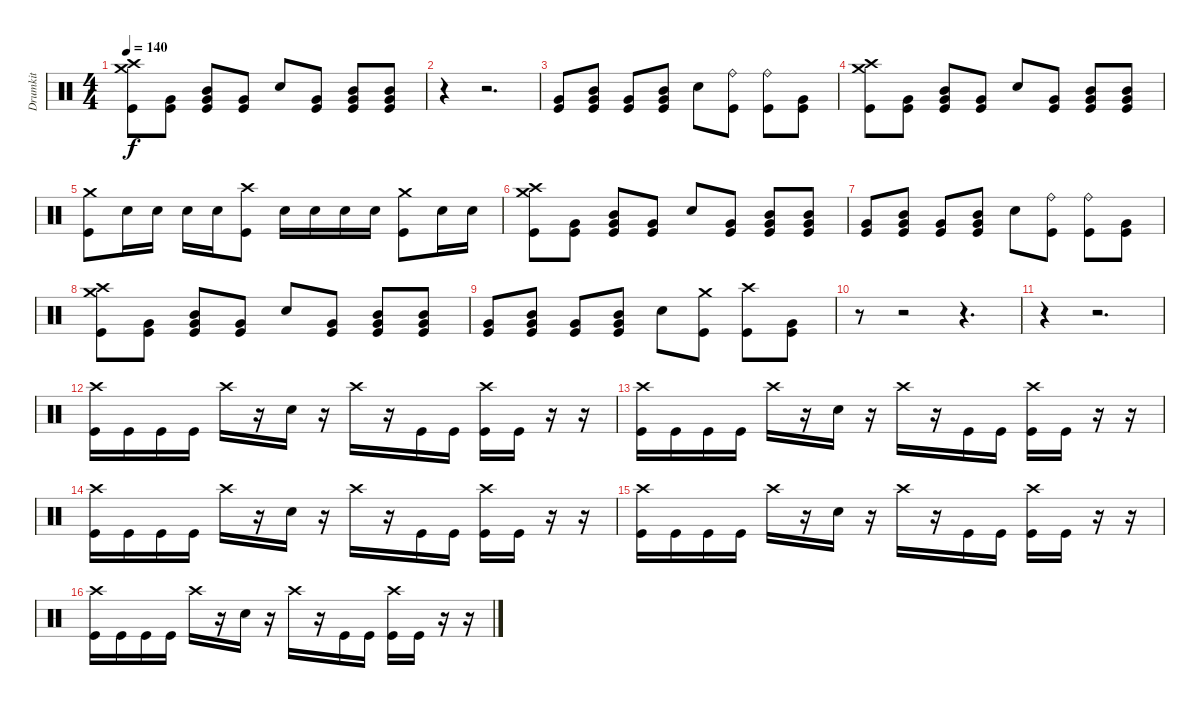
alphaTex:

\track ("Drumkit" "Drumkit") {instrument percussion}
\staff {score}
\articulation defaults
\ts (4 4)
\tempo 140
\clef neutral
\ks c
("Crash high (hit)" "Crash medium (hit)" "Kick (hit)").8{dy f} ("Very Low Tom (hit)" "Kick (hit)").8 ("Mid Tom (hit)" "Very Low Tom (hit)" "Kick (hit)").8 ("Very Low Tom (hit)" "Kick (hit)").8 "Snare (hit) 2".8 ("Very Low Tom (hit)" "Kick (hit)").8 ("Mid Tom (hit)" "Very Low Tom (hit)" "Kick (hit)").8 ("Mid Tom (hit)" "Very Low Tom (hit)" "Kick (hit)").8 |
r.4 r.2{d} |
("Very Low Tom (hit)" "Kick (hit)").8 ("Mid Tom (hit)" "Very Low Tom (hit)" "Kick (hit)").8 ("Very Low Tom (hit)" "Kick (hit)").8 ("Mid Tom (hit)" "Very Low Tom (hit)" "Kick (hit)").8 "Snare (hit) 2".8 ("Ride (bell)" "Kick (hit)").8 ("Ride (bell)" "Kick (hit)").8 ("Very Low Tom (hit)" "Kick (hit)").8 |
("Crash high (hit)" "Crash medium (hit)" "Kick (hit)").8 ("Very Low Tom (hit)" "Kick (hit)").8 ("Mid Tom (hit)" "Very Low Tom (hit)" "Kick (hit)").8 ("Very Low Tom (hit)" "Kick (hit)").8 "Snare (hit) 2".8 ("Very Low Tom (hit)" "Kick (hit)").8 ("Mid Tom (hit)" "Very Low Tom (hit)" "Kick (hit)").8 ("Mid Tom (hit)" "Very Low Tom (hit)" "Kick (hit)").8 |
("Crash medium (hit)" "Kick (hit)").8 "Snare (hit) 2".16 "Snare (hit) 2".16 "Snare (hit) 2".16 "Snare (hit) 2".16 ("Crash high (hit)" "Kick (hit)").8 "Snare (hit) 2".16 "Snare (hit) 2".16 "Snare (hit) 2".16 "Snare (hit) 2".16 ("Crash medium (hit)" "Kick (hit)").8 "Snare (hit) 2".16 "Snare (hit) 2".16 |
("Crash high (hit)" "Crash medium (hit)" "Kick (hit)").8 ("Very Low Tom (hit)" "Kick (hit)").8 ("Mid Tom (hit)" "Very Low Tom (hit)" "Kick (hit)").8 ("Very Low Tom (hit)" "Kick (hit)").8 "Snare (hit) 2".8 ("Very Low Tom (hit)" "Kick (hit)").8 ("Mid Tom (hit)" "Very Low Tom (hit)" "Kick (hit)").8 ("Mid Tom (hit)" "Very Low Tom (hit)" "Kick (hit)").8 |
("Very Low Tom (hit)" "Kick (hit)").8 ("Mid Tom (hit)" "Very Low Tom (hit)" "Kick (hit)").8 ("Very Low Tom (hit)" "Kick (hit)").8 ("Mid Tom (hit)" "Very Low Tom (hit)" "Kick (hit)").8 "Snare (hit) 2".8 ("Ride (bell)" "Kick (hit)").8 ("Ride (bell)" "Kick (hit)").8 ("Very Low Tom (hit)" "Kick (hit)").8 |
("Crash high (hit)" "Crash medium (hit)" "Kick (hit)").8 ("Very Low Tom (hit)" "Kick (hit)").8 ("Mid Tom (hit)" "Very Low Tom (hit)" "Kick (hit)").8 ("Very Low Tom (hit)" "Kick (hit)").8 "Snare (hit) 2".8 ("Very Low Tom (hit)" "Kick (hit)").8 ("Mid Tom (hit)" "Very Low Tom (hit)" "Kick (hit)").8 ("Mid Tom (hit)" "Very Low Tom (hit)" "Kick (hit)").8 |
("Very Low Tom (hit)" "Kick (hit)").8 ("Mid Tom (hit)" "Very Low Tom (hit)" "Kick (hit)").8 ("Very Low Tom (hit)" "Kick (hit)").8 ("Mid Tom (hit)" "Very Low Tom (hit)" "Kick (hit)").8 "Snare (hit) 2".8 ("Crash medium (hit)" "Kick (hit)").8 ("Crash high (hit)" "Kick (hit)").8 ("Very Low Tom (hit)" "Kick (hit)").8 |
r.8 r.2 r.4{d} |
r.4 r.2{d} |
("Crash high (hit)" "Kick (hit)").16 "Kick (hit)".16 "Kick (hit)".16 "Kick (hit)".16 "Crash high (hit)".16 r.16 "Snare (hit) 2".16 r.16 "Crash high (hit)".16 r.16 "Kick (hit)".16 "Kick (hit)".16 ("Crash high (hit)" "Kick (hit)").16 "Kick (hit)".16 r.16 r.16 |
("Crash high (hit)" "Kick (hit)").16 "Kick (hit)".16 "Kick (hit)".16 "Kick (hit)".16 "Crash high (hit)".16 r.16 "Snare (hit) 2".16 r.16 "Crash high (hit)".16 r.16 "Kick (hit)".16 "Kick (hit)".16 ("Crash high (hit)" "Kick (hit)").16 "Kick (hit)".16 r.16 r.16 |
("Crash high (hit)" "Kick (hit)").16 "Kick (hit)".16 "Kick (hit)".16 "Kick (hit)".16 "Crash high (hit)".16 r.16 "Snare (hit) 2".16 r.16 "Crash high (hit)".16 r.16 "Kick (hit)".16 "Kick (hit)".16 ("Crash high (hit)" "Kick (hit)").16 "Kick (hit)".16 r.16 r.16 |
("Crash high (hit)" "Kick (hit)").16 "Kick (hit)".16 "Kick (hit)".16 "Kick (hit)".16 "Crash high (hit)".16 r.16 "Snare (hit) 2".16 r.16 "Crash high (hit)".16 r.16 "Kick (hit)".16 "Kick (hit)".16 ("Crash high (hit)" "Kick (hit)").16 "Kick (hit)".16 r.16 r.16 |
("Crash high (hit)" "Kick (hit)").16 "Kick (hit)".16 "Kick (hit)".16 "Kick (hit)".16 "Crash high (hit)".16 r.16 "Snare (hit) 2".16 r.16 "Crash high (hit)".16 r.16 "Kick (hit)".16 "Kick (hit)".16 ("Crash high (hit)" "Kick (hit)").16 "Kick (hit)".16 r.16 r.16
